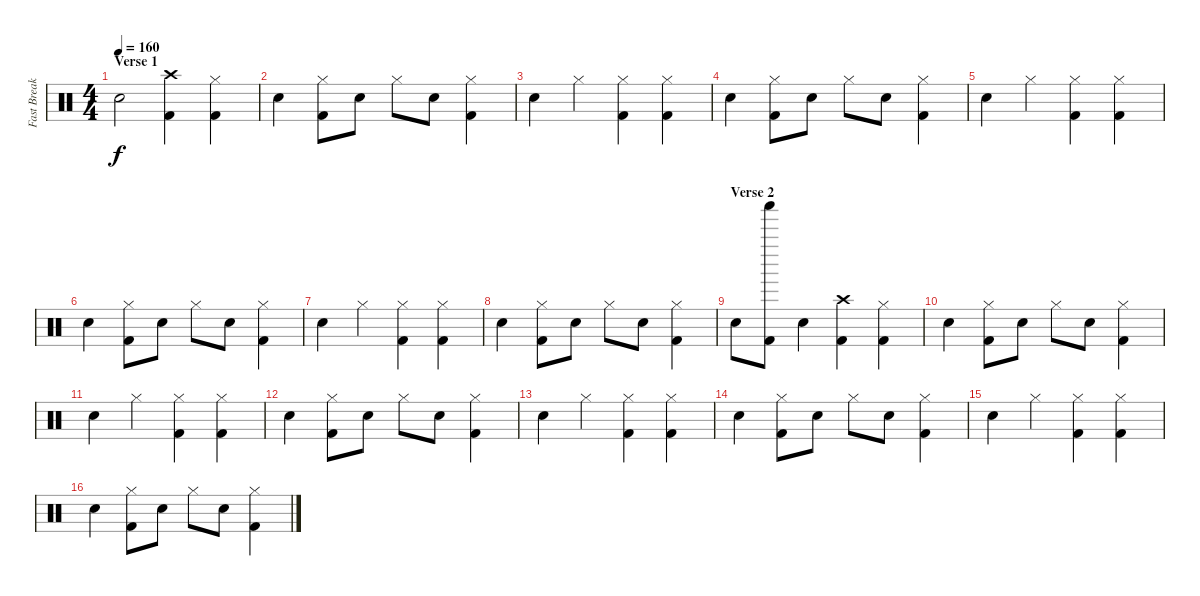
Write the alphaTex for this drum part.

\track ("Fast Break Drums" "Fast Break") {instrument percussion}
\staff {score}
\articulation defaults
\ts (4 4)
\section ("" "Verse 1")
\tempo 160
\clef neutral
\ks c "Snare (hit) 2".2{dy f}
("Kick (hit) 2" "Crash high (hit)").4 ("Kick (hit) 2" "Hi-Hat (closed)").4 |
"Snare (hit) 2".4 ("Kick (hit) 2" "Hi-Hat (closed)").8 "Electric Snare (hit)".8 "Hi-Hat (closed)".8 "Electric Snare (hit)".8 ("Kick (hit) 2" "Hi-Hat (closed)").4 |
"Snare (hit) 2".4 "Hi-Hat (closed)".4 ("Kick (hit) 2" "Hi-Hat (closed)").4 ("Kick (hit) 2" "Hi-Hat (closed)").4 |
"Snare (hit) 2".4 ("Kick (hit) 2" "Hi-Hat (closed)").8 "Electric Snare (hit)".8 "Hi-Hat (closed)".8 "Electric Snare (hit)".8 ("Kick (hit) 2" "Hi-Hat (closed)").4 |
"Snare (hit) 2".4 "Hi-Hat (closed)".4 ("Kick (hit) 2" "Hi-Hat (closed)").4 ("Kick (hit) 2" "Hi-Hat (closed)").4 |
"Snare (hit) 2".4 ("Kick (hit) 2" "Hi-Hat (closed)").8 "Electric Snare (hit)".8 "Hi-Hat (closed)".8 "Electric Snare (hit)".8 ("Kick (hit) 2" "Hi-Hat (closed)").4 |
"Snare (hit) 2".4 "Hi-Hat (closed)".4 ("Kick (hit) 2" "Hi-Hat (closed)").4 ("Kick (hit) 2" "Hi-Hat (closed)").4 |
"Snare (hit) 2".4 ("Kick (hit) 2" "Hi-Hat (closed)").8 "Electric Snare (hit)".8 "Hi-Hat (closed)".8 "Electric Snare (hit)".8 ("Kick (hit) 2" "Hi-Hat (closed)").4 |
\section ("" "Verse 2")
"Snare (hit) 2".8 ("Kick (hit) 2" "Shaker (hit)").8 "Snare (hit) 2".4 ("Kick (hit) 2" "Crash high (hit)").4 ("Kick (hit) 2" "Hi-Hat (closed)").4 |
"Snare (hit) 2".4 ("Kick (hit) 2" "Hi-Hat (closed)").8 "Electric Snare (hit)".8 "Hi-Hat (closed)".8 "Electric Snare (hit)".8 ("Kick (hit) 2" "Hi-Hat (closed)").4 |
"Snare (hit) 2".4 "Hi-Hat (closed)".4 ("Kick (hit) 2" "Hi-Hat (closed)").4 ("Kick (hit) 2" "Hi-Hat (closed)").4 |
"Snare (hit) 2".4 ("Kick (hit) 2" "Hi-Hat (closed)").8 "Electric Snare (hit)".8 "Hi-Hat (closed)".8 "Electric Snare (hit)".8 ("Kick (hit) 2" "Hi-Hat (closed)").4 |
"Snare (hit) 2".4 "Hi-Hat (closed)".4 ("Kick (hit) 2" "Hi-Hat (closed)").4 ("Kick (hit) 2" "Hi-Hat (closed)").4 |
"Snare (hit) 2".4 ("Kick (hit) 2" "Hi-Hat (closed)").8 "Electric Snare (hit)".8 "Hi-Hat (closed)".8 "Electric Snare (hit)".8 ("Kick (hit) 2" "Hi-Hat (closed)").4 |
"Snare (hit) 2".4 "Hi-Hat (closed)".4 ("Kick (hit) 2" "Hi-Hat (closed)").4 ("Kick (hit) 2" "Hi-Hat (closed)").4 |
"Snare (hit) 2".4 ("Kick (hit) 2" "Hi-Hat (closed)").8 "Electric Snare (hit)".8 "Hi-Hat (closed)".8 "Electric Snare (hit)".8 ("Kick (hit) 2" "Hi-Hat (closed)").4
